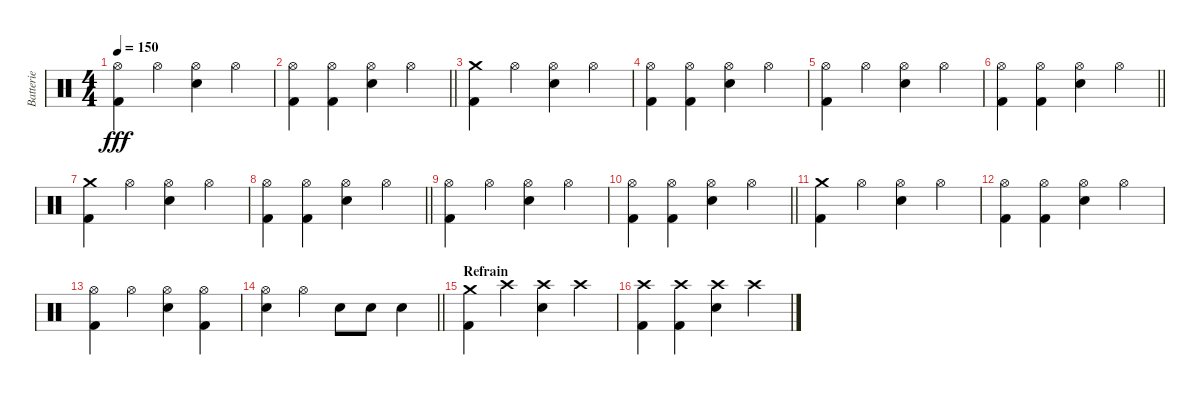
\track ("Batterie" "Batterie") {instrument percussion}
\staff {score}
\articulation defaults
\ts (4 4)
\tempo 150
\clef neutral
\ks c
("Hi-Hat (open)" "Kick (hit) 2").4{dy fff} "Hi-Hat (open)".4 ("Hi-Hat (open)" "Electric Snare (hit)").4 "Hi-Hat (open)".4 |
\barLineRight lightlight
("Hi-Hat (open)" "Kick (hit) 2").4 ("Hi-Hat (open)" "Kick (hit) 2").4 ("Hi-Hat (open)" "Electric Snare (hit)").4 "Hi-Hat (open)".4 |
("Crash medium (hit)" "Kick (hit) 2").4 "Hi-Hat (open)".4 ("Hi-Hat (open)" "Electric Snare (hit)").4 "Hi-Hat (open)".4 |
("Hi-Hat (open)" "Kick (hit) 2").4 ("Hi-Hat (open)" "Kick (hit) 2").4 ("Hi-Hat (open)" "Electric Snare (hit)").4 "Hi-Hat (open)".4 |
("Hi-Hat (open)" "Kick (hit) 2").4 "Hi-Hat (open)".4 ("Hi-Hat (open)" "Electric Snare (hit)").4 "Hi-Hat (open)".4 |
\barLineRight lightlight
("Hi-Hat (open)" "Kick (hit) 2").4 ("Hi-Hat (open)" "Kick (hit) 2").4 ("Hi-Hat (open)" "Electric Snare (hit)").4 "Hi-Hat (open)".4 |
("Crash medium (hit)" "Kick (hit) 2").4 "Hi-Hat (open)".4 ("Hi-Hat (open)" "Electric Snare (hit)").4 "Hi-Hat (open)".4 |
\barLineRight lightlight
("Hi-Hat (open)" "Kick (hit) 2").4 ("Hi-Hat (open)" "Kick (hit) 2").4 ("Hi-Hat (open)" "Electric Snare (hit)").4 "Hi-Hat (open)".4 |
("Hi-Hat (open)" "Kick (hit) 2").4 "Hi-Hat (open)".4 ("Hi-Hat (open)" "Electric Snare (hit)").4 "Hi-Hat (open)".4 |
\barLineRight lightlight
("Hi-Hat (open)" "Kick (hit) 2").4 ("Hi-Hat (open)" "Kick (hit) 2").4 ("Hi-Hat (open)" "Electric Snare (hit)").4 "Hi-Hat (open)".4 |
("Crash medium (hit)" "Kick (hit) 2").4 "Hi-Hat (open)".4 ("Hi-Hat (open)" "Electric Snare (hit)").4 "Hi-Hat (open)".4 |
("Hi-Hat (open)" "Kick (hit) 2").4 ("Hi-Hat (open)" "Kick (hit) 2").4 ("Hi-Hat (open)" "Electric Snare (hit)").4 "Hi-Hat (open)".4 |
("Hi-Hat (open)" "Kick (hit) 2").4 "Hi-Hat (open)".4 ("Hi-Hat (open)" "Electric Snare (hit)").4 ("Hi-Hat (open)" "Kick (hit) 2").4 |
\barLineRight lightlight
("Hi-Hat (open)" "Electric Snare (hit)").4 "Hi-Hat (open)".4 "Electric Snare (hit)".8 "Electric Snare (hit)".8 "Electric Snare (hit)".4 |
\section ("" "Refrain")
("Crash medium (hit)" "Kick (hit) 2").4 "Crash high (hit)".4 ("Crash high (hit)" "Electric Snare (hit)").4 "Crash high (hit)".4 |
("Crash high (hit)" "Kick (hit) 2").4 ("Crash high (hit)" "Kick (hit) 2").4 ("Crash high (hit)" "Electric Snare (hit)").4 "Crash high (hit)".4
